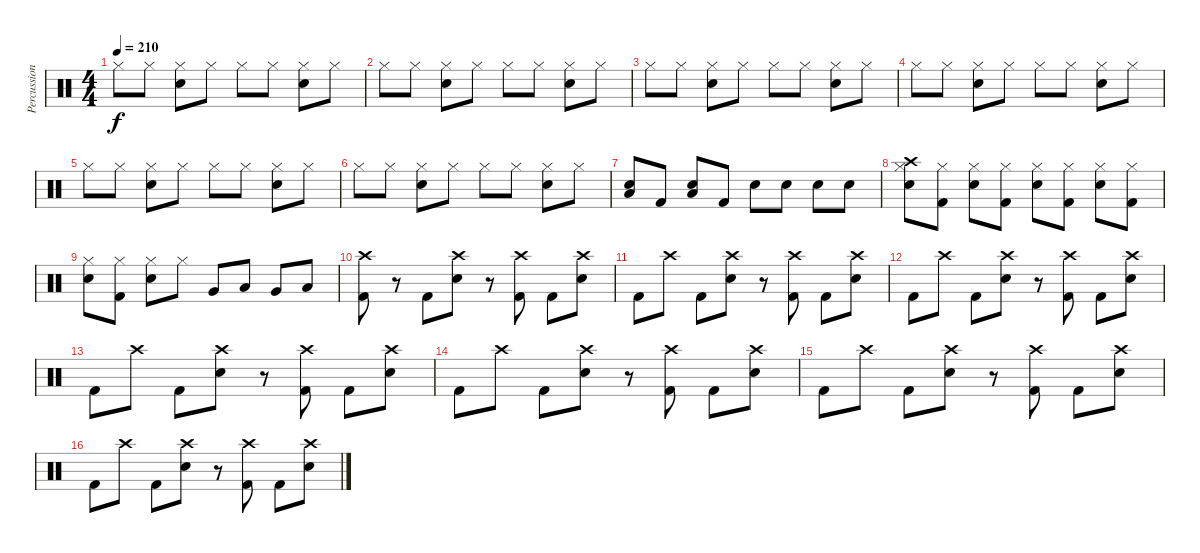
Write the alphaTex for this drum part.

\track ("Percussion" "Percussion") {instrument percussion}
\staff {score}
\articulation defaults
\ts (4 4)
\tempo 210
\clef neutral
\ks c "Hi-Hat (closed)".8{dy f} "Hi-Hat (closed)".8
("Hi-Hat (closed)" "Snare (hit) 2").8 "Hi-Hat (closed)".8 "Hi-Hat (closed)".8 "Hi-Hat (closed)".8 ("Hi-Hat (closed)" "Snare (hit) 2").8 "Hi-Hat (closed)".8 |
"Hi-Hat (closed)".8 "Hi-Hat (closed)".8 ("Hi-Hat (closed)" "Snare (hit) 2").8 "Hi-Hat (closed)".8 "Hi-Hat (closed)".8 "Hi-Hat (closed)".8 ("Hi-Hat (closed)" "Snare (hit) 2").8 "Hi-Hat (closed)".8 |
"Hi-Hat (closed)".8 "Hi-Hat (closed)".8 ("Hi-Hat (closed)" "Snare (hit) 2").8 "Hi-Hat (closed)".8 "Hi-Hat (closed)".8 "Hi-Hat (closed)".8 ("Hi-Hat (closed)" "Snare (hit) 2").8 "Hi-Hat (closed)".8 |
"Hi-Hat (closed)".8 "Hi-Hat (closed)".8 ("Hi-Hat (closed)" "Snare (hit) 2").8 "Hi-Hat (closed)".8 "Hi-Hat (closed)".8 "Hi-Hat (closed)".8 ("Hi-Hat (closed)" "Snare (hit) 2").8 "Hi-Hat (closed)".8 |
"Hi-Hat (closed)".8 "Hi-Hat (closed)".8 ("Hi-Hat (closed)" "Snare (hit) 2").8 "Hi-Hat (closed)".8 "Hi-Hat (closed)".8 "Hi-Hat (closed)".8 ("Hi-Hat (closed)" "Snare (hit) 2").8 "Hi-Hat (closed)".8 |
"Hi-Hat (closed)".8 "Hi-Hat (closed)".8 ("Hi-Hat (closed)" "Snare (hit) 2").8 "Hi-Hat (closed)".8 "Hi-Hat (closed)".8 "Hi-Hat (closed)".8 ("Hi-Hat (closed)" "Snare (hit) 2").8 "Hi-Hat (closed)".8 |
("Low Floor Tom (hit)" "Snare (hit) 2").8 "Kick (hit) 2".8 ("Low Floor Tom (hit)" "Snare (hit) 2").8 "Kick (hit) 2".8 "Snare (hit) 2".8 "Snare (hit) 2".8 "Snare (hit) 2".8 "Snare (hit) 2".8 |
("Crash high (hit)" "Hi-Hat (closed)" "Snare (hit) 2").8 ("Hi-Hat (closed)" "Kick (hit) 2").8 ("Hi-Hat (closed)" "Snare (hit) 2").8 ("Hi-Hat (closed)" "Kick (hit) 2").8 ("Hi-Hat (closed)" "Snare (hit) 2").8 ("Hi-Hat (closed)" "Kick (hit) 2").8 ("Hi-Hat (closed)" "Snare (hit) 2").8 ("Hi-Hat (closed)" "Kick (hit) 2").8 |
("Hi-Hat (closed)" "Snare (hit) 2").8 ("Hi-Hat (closed)" "Kick (hit) 2").8 ("Hi-Hat (closed)" "Snare (hit) 2").8 "Hi-Hat (closed)".8 "Very Low Tom (hit)".8 "Low Floor Tom (hit)".8 "Very Low Tom (hit)".8 "Low Floor Tom (hit)".8 |
("Crash high (hit)" "Kick (hit) 2").8 r.8 "Kick (hit) 2".8 ("Crash high (hit)" "Snare (hit) 2").8 r.8 ("Crash high (hit)" "Kick (hit) 2").8 "Kick (hit) 2".8 ("Crash high (hit)" "Snare (hit) 2").8 |
"Kick (hit) 2".8 "Crash high (hit)".8 "Kick (hit) 2".8 ("Crash high (hit)" "Snare (hit) 2").8 r.8 ("Crash high (hit)" "Kick (hit) 2").8 "Kick (hit) 2".8 ("Crash high (hit)" "Snare (hit) 2").8 |
"Kick (hit) 2".8 "Crash high (hit)".8 "Kick (hit) 2".8 ("Crash high (hit)" "Snare (hit) 2").8 r.8 ("Crash high (hit)" "Kick (hit) 2").8 "Kick (hit) 2".8 ("Crash high (hit)" "Snare (hit) 2").8 |
"Kick (hit) 2".8 "Crash high (hit)".8 "Kick (hit) 2".8 ("Crash high (hit)" "Snare (hit) 2").8 r.8 ("Crash high (hit)" "Kick (hit) 2").8 "Kick (hit) 2".8 ("Crash high (hit)" "Snare (hit) 2").8 |
"Kick (hit) 2".8 "Crash high (hit)".8 "Kick (hit) 2".8 ("Crash high (hit)" "Snare (hit) 2").8 r.8 ("Crash high (hit)" "Kick (hit) 2").8 "Kick (hit) 2".8 ("Crash high (hit)" "Snare (hit) 2").8 |
"Kick (hit) 2".8 "Crash high (hit)".8 "Kick (hit) 2".8 ("Crash high (hit)" "Snare (hit) 2").8 r.8 ("Crash high (hit)" "Kick (hit) 2").8 "Kick (hit) 2".8 ("Crash high (hit)" "Snare (hit) 2").8 |
"Kick (hit) 2".8 "Crash high (hit)".8 "Kick (hit) 2".8 ("Crash high (hit)" "Snare (hit) 2").8 r.8 ("Crash high (hit)" "Kick (hit) 2").8 "Kick (hit) 2".8 ("Crash high (hit)" "Snare (hit) 2").8
